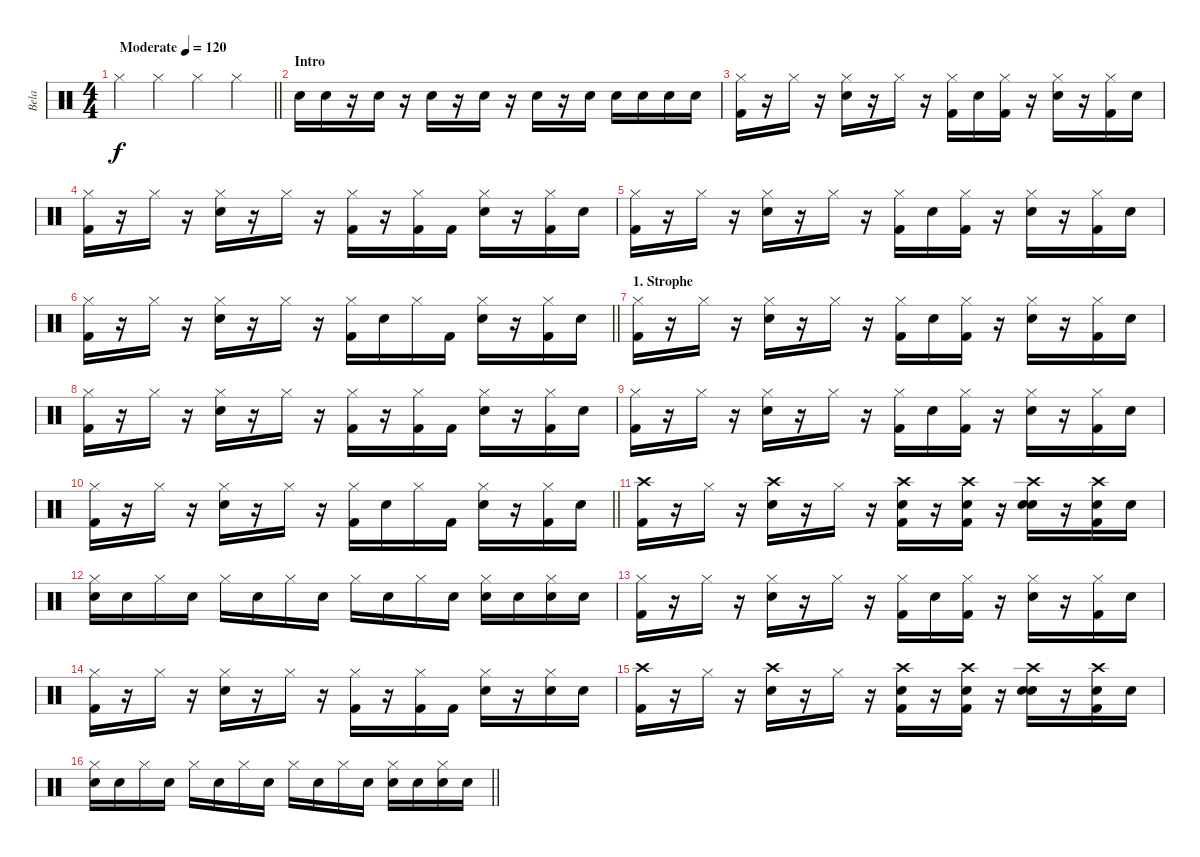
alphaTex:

\track ("Bela" "Bela") {instrument percussion}
\staff {score}
\articulation defaults
\ts (4 4)
\tempo (120 "Moderate")
\clef neutral
\barLineRight lightlight
\ks c "Hi-Hat (closed)".4{dy f} "Hi-Hat (closed)".4 "Hi-Hat (closed)".4 "Hi-Hat (closed)".4
|
\section ("" "Intro")
"Electric Snare (hit)".16 "Snare (hit) 2".16 r.16 "Electric Snare (hit)".16 r.16 "Electric Snare (hit)".16 r.16 "Electric Snare (hit)".16 r.16 "Electric Snare (hit)".16 r.16 "Electric Snare (hit)".16 "Electric Snare (hit)".16 "Electric Snare (hit)".16 "Electric Snare (hit)".16 "Electric Snare (hit)".16 |
("Hi-Hat (closed)" "Kick (hit) 2").16 r.16 "Hi-Hat (closed)".16 r.16 ("Hi-Hat (closed)" "Electric Snare (hit)").16 r.16 "Hi-Hat (closed)".16 r.16 ("Hi-Hat (closed)" "Kick (hit) 2").16 "Electric Snare (hit)".16 ("Hi-Hat (closed)" "Kick (hit) 2").16 r.16 ("Hi-Hat (closed)" "Electric Snare (hit)").16 r.16 ("Hi-Hat (closed)" "Kick (hit) 2").16 "Electric Snare (hit)".16 |
("Hi-Hat (closed)" "Kick (hit) 2").16 r.16 "Hi-Hat (closed)".16 r.16 ("Hi-Hat (closed)" "Electric Snare (hit)").16 r.16 "Hi-Hat (closed)".16 r.16 ("Hi-Hat (closed)" "Kick (hit) 2").16 r.16 ("Hi-Hat (closed)" "Kick (hit) 2").16 "Kick (hit) 2".16 ("Hi-Hat (closed)" "Electric Snare (hit)").16 r.16 ("Hi-Hat (closed)" "Kick (hit) 2").16 "Electric Snare (hit)".16 |
("Hi-Hat (closed)" "Kick (hit) 2").16 r.16 "Hi-Hat (closed)".16 r.16 ("Hi-Hat (closed)" "Electric Snare (hit)").16 r.16 "Hi-Hat (closed)".16 r.16 ("Hi-Hat (closed)" "Kick (hit) 2").16 "Electric Snare (hit)".16 ("Hi-Hat (closed)" "Kick (hit) 2").16 r.16 ("Hi-Hat (closed)" "Electric Snare (hit)").16 r.16 ("Hi-Hat (closed)" "Kick (hit) 2").16 "Electric Snare (hit)".16 |
\barLineRight lightlight
("Hi-Hat (closed)" "Kick (hit) 2").16 r.16 "Hi-Hat (closed)".16 r.16 ("Hi-Hat (closed)" "Electric Snare (hit)").16 r.16 "Hi-Hat (closed)".16 r.16 ("Hi-Hat (closed)" "Kick (hit) 2").16 "Snare (hit) 2".16 "Hi-Hat (closed)".16 "Kick (hit) 2".16 ("Hi-Hat (closed)" "Electric Snare (hit)").16 r.16 ("Hi-Hat (closed)" "Kick (hit) 2").16 "Electric Snare (hit)".16 |
\section ("" "1. Strophe")
("Hi-Hat (closed)" "Kick (hit) 2").16 r.16 "Hi-Hat (closed)".16 r.16 ("Hi-Hat (closed)" "Electric Snare (hit)").16 r.16 "Hi-Hat (closed)".16 r.16 ("Hi-Hat (closed)" "Kick (hit) 2").16 "Electric Snare (hit)".16 ("Hi-Hat (closed)" "Kick (hit) 2").16 r.16 ("Hi-Hat (closed)" "Electric Snare (hit)").16 r.16 ("Hi-Hat (closed)" "Kick (hit) 2").16 "Electric Snare (hit)".16 |
("Hi-Hat (closed)" "Kick (hit) 2").16 r.16 "Hi-Hat (closed)".16 r.16 ("Hi-Hat (closed)" "Electric Snare (hit)").16 r.16 "Hi-Hat (closed)".16 r.16 ("Hi-Hat (closed)" "Kick (hit) 2").16 r.16 ("Hi-Hat (closed)" "Kick (hit) 2").16 "Kick (hit) 2".16 ("Hi-Hat (closed)" "Electric Snare (hit)").16 r.16 ("Hi-Hat (closed)" "Kick (hit) 2").16 "Electric Snare (hit)".16 |
("Hi-Hat (closed)" "Kick (hit) 2").16 r.16 "Hi-Hat (closed)".16 r.16 ("Hi-Hat (closed)" "Electric Snare (hit)").16 r.16 "Hi-Hat (closed)".16 r.16 ("Hi-Hat (closed)" "Kick (hit) 2").16 "Electric Snare (hit)".16 ("Hi-Hat (closed)" "Kick (hit) 2").16 r.16 ("Hi-Hat (closed)" "Electric Snare (hit)").16 r.16 ("Hi-Hat (closed)" "Kick (hit) 2").16 "Electric Snare (hit)".16 |
\barLineRight lightlight
("Hi-Hat (closed)" "Kick (hit) 2").16 r.16 "Hi-Hat (closed)".16 r.16 ("Hi-Hat (closed)" "Electric Snare (hit)").16 r.16 "Hi-Hat (closed)".16 r.16 ("Hi-Hat (closed)" "Kick (hit) 2").16 "Snare (hit) 2".16 "Hi-Hat (closed)".16 "Kick (hit) 2".16 ("Hi-Hat (closed)" "Electric Snare (hit)").16 r.16 ("Hi-Hat (closed)" "Kick (hit) 2").16 "Electric Snare (hit)".16 |
("Crash high (hit)" "Kick (hit) 2").16 r.16 "Hi-Hat (closed)".16 r.16 ("Crash high (hit)" "Electric Snare (hit)").16 r.16 "Hi-Hat (closed)".16 r.16 ("Crash high (hit)" "Kick (hit) 2" "Electric Snare (hit)").16 r.16 ("Crash high (hit)" "Kick (hit) 2" "Electric Snare (hit)").16 r.16 ("Crash high (hit)" "Electric Snare (hit)" "Snare (hit) 2").16 r.16 ("Crash high (hit)" "Kick (hit) 2" "Electric Snare (hit)").16 "Electric Snare (hit)".16 |
("Hi-Hat (closed)" "Electric Snare (hit)").16 "Snare (hit) 2".16 "Hi-Hat (closed)".16 "Electric Snare (hit)".16 "Hi-Hat (closed)".16 "Electric Snare (hit)".16 "Hi-Hat (closed)".16 "Electric Snare (hit)".16 "Hi-Hat (closed)".16 "Electric Snare (hit)".16 "Hi-Hat (closed)".16 "Electric Snare (hit)".16 ("Hi-Hat (closed)" "Electric Snare (hit)").16 "Electric Snare (hit)".16 ("Hi-Hat (closed)" "Electric Snare (hit)").16 "Electric Snare (hit)".16 |
("Hi-Hat (closed)" "Kick (hit) 2").16 r.16 "Hi-Hat (closed)".16 r.16 ("Hi-Hat (closed)" "Electric Snare (hit)").16 r.16 "Hi-Hat (closed)".16 r.16 ("Hi-Hat (closed)" "Kick (hit) 2").16 "Electric Snare (hit)".16 ("Hi-Hat (closed)" "Kick (hit) 2").16 r.16 ("Hi-Hat (closed)" "Electric Snare (hit)").16 r.16 ("Hi-Hat (closed)" "Kick (hit) 2").16 "Electric Snare (hit)".16 |
("Hi-Hat (closed)" "Kick (hit) 2").16 r.16 "Hi-Hat (closed)".16 r.16 ("Hi-Hat (closed)" "Electric Snare (hit)").16 r.16 "Hi-Hat (closed)".16 r.16 ("Hi-Hat (closed)" "Kick (hit) 2").16 r.16 ("Hi-Hat (closed)" "Kick (hit) 2").16 "Kick (hit) 2".16 ("Hi-Hat (closed)" "Electric Snare (hit)").16 r.16 ("Hi-Hat (closed)" "Electric Snare (hit)").16 "Electric Snare (hit)".16 |
("Crash high (hit)" "Kick (hit) 2").16 r.16 "Hi-Hat (closed)".16 r.16 ("Crash high (hit)" "Electric Snare (hit)").16 r.16 "Hi-Hat (closed)".16 r.16 ("Crash high (hit)" "Kick (hit) 2" "Electric Snare (hit)").16 r.16 ("Crash high (hit)" "Kick (hit) 2" "Electric Snare (hit)").16 r.16 ("Crash high (hit)" "Electric Snare (hit)" "Snare (hit) 2").16 r.16 ("Crash high (hit)" "Kick (hit) 2" "Electric Snare (hit)").16 "Electric Snare (hit)".16 |
\barLineRight lightlight
("Hi-Hat (closed)" "Electric Snare (hit)").16 "Snare (hit) 2".16 "Hi-Hat (closed)".16 "Electric Snare (hit)".16 "Hi-Hat (closed)".16 "Electric Snare (hit)".16 "Hi-Hat (closed)".16 "Electric Snare (hit)".16 "Hi-Hat (closed)".16 "Electric Snare (hit)".16 "Hi-Hat (closed)".16 "Electric Snare (hit)".16 ("Hi-Hat (closed)" "Electric Snare (hit)").16 "Electric Snare (hit)".16 ("Hi-Hat (closed)" "Electric Snare (hit)").16 "Electric Snare (hit)".16
